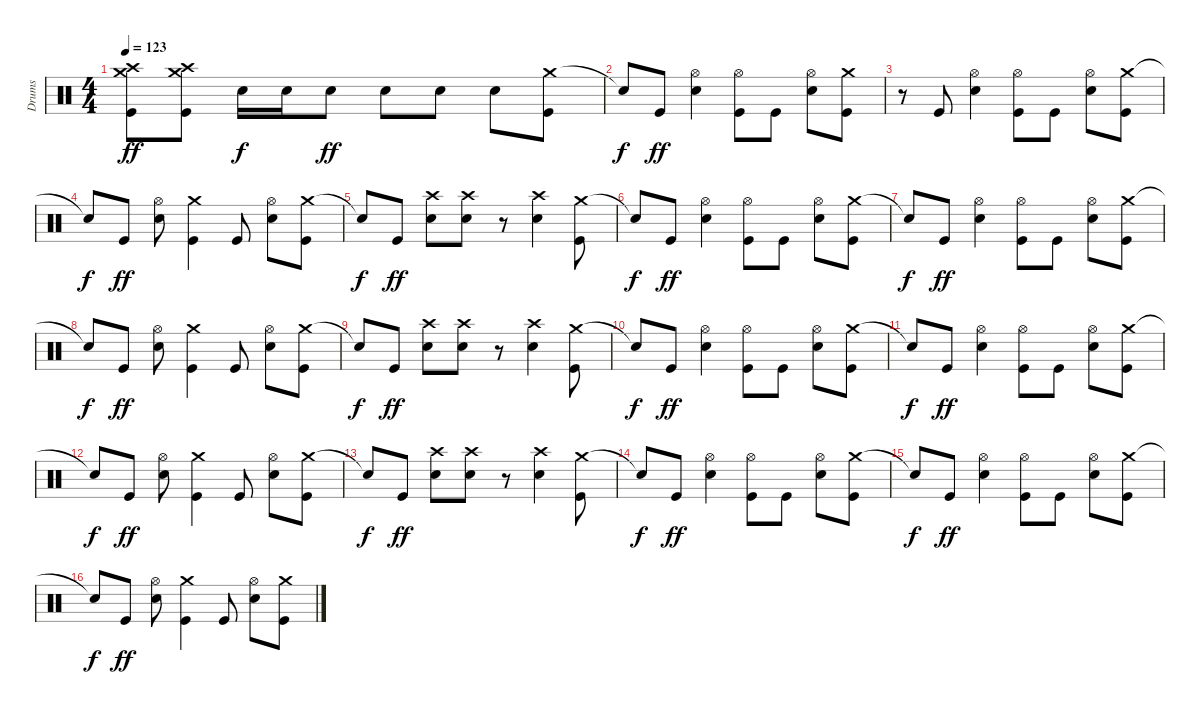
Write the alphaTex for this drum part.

\track ("Drums" "Drums") {instrument percussion}
\staff {score}
\articulation defaults
\ts (4 4)
\tempo 123
\clef neutral
\ks c
("Crash high (hit)" "Crash medium (hit)" "Kick (hit)").8{dy ff} ("Crash high (hit)" "Crash medium (hit)" "Kick (hit)").8 "Electric Snare (hit)".16{dy f} "Electric Snare (hit)".16 "Electric Snare (hit)".8{dy ff} "Electric Snare (hit)".8 "Electric Snare (hit)".8 "Electric Snare (hit)".8 ("Crash medium (hit)" "Kick (hit)").8 |
"Snare (hit)"{t}.8{dy f} "Kick (hit)".8{dy ff} ("Hi-Hat (open)" "Electric Snare (hit)").4 ("Hi-Hat (open)" "Kick (hit)").8 "Kick (hit)".8 ("Hi-Hat (open)" "Electric Snare (hit)").8 ("Crash medium (hit)" "Kick (hit)").8 |
r.8 "Kick (hit)".8 ("Hi-Hat (open)" "Electric Snare (hit)").4 ("Hi-Hat (open)" "Kick (hit)").8 "Kick (hit)".8 ("Hi-Hat (open)" "Electric Snare (hit)").8 ("Crash medium (hit)" "Kick (hit)").8 |
"Snare (hit)"{t}.8{dy f} "Kick (hit)".8{dy ff} ("Hi-Hat (open)" "Electric Snare (hit)").8 ("Crash medium (hit)" "Kick (hit)").4 "Kick (hit)".8 ("Hi-Hat (open)" "Electric Snare (hit)").8 ("Crash medium (hit)" "Kick (hit)").8 |
"Snare (hit)"{t}.8{dy f} "Kick (hit)".8{dy ff} ("Crash high (hit)" "Electric Snare (hit)").8 ("Crash high (hit)" "Electric Snare (hit)").8 r.8 ("Crash high (hit)" "Electric Snare (hit)").4 ("Crash medium (hit)" "Kick (hit)").8 |
"Snare (hit)"{t}.8{dy f} "Kick (hit)".8{dy ff} ("Hi-Hat (open)" "Electric Snare (hit)").4 ("Hi-Hat (open)" "Kick (hit)").8 "Kick (hit)".8 ("Hi-Hat (open)" "Electric Snare (hit)").8 ("Crash medium (hit)" "Kick (hit)").8 |
"Snare (hit)"{t}.8{dy f} "Kick (hit)".8{dy ff} ("Hi-Hat (open)" "Electric Snare (hit)").4 ("Hi-Hat (open)" "Kick (hit)").8 "Kick (hit)".8 ("Hi-Hat (open)" "Electric Snare (hit)").8 ("Crash medium (hit)" "Kick (hit)").8 |
"Snare (hit)"{t}.8{dy f} "Kick (hit)".8{dy ff} ("Hi-Hat (open)" "Electric Snare (hit)").8 ("Crash medium (hit)" "Kick (hit)").4 "Kick (hit)".8 ("Hi-Hat (open)" "Electric Snare (hit)").8 ("Crash medium (hit)" "Kick (hit)").8 |
"Snare (hit)"{t}.8{dy f} "Kick (hit)".8{dy ff} ("Crash high (hit)" "Electric Snare (hit)").8 ("Crash high (hit)" "Electric Snare (hit)").8 r.8 ("Crash high (hit)" "Electric Snare (hit)").4 ("Crash medium (hit)" "Kick (hit)").8 |
"Snare (hit)"{t}.8{dy f} "Kick (hit)".8{dy ff} ("Hi-Hat (open)" "Electric Snare (hit)").4 ("Hi-Hat (open)" "Kick (hit)").8 "Kick (hit)".8 ("Hi-Hat (open)" "Electric Snare (hit)").8 ("Crash medium (hit)" "Kick (hit)").8 |
"Snare (hit)"{t}.8{dy f} "Kick (hit)".8{dy ff} ("Hi-Hat (open)" "Electric Snare (hit)").4 ("Hi-Hat (open)" "Kick (hit)").8 "Kick (hit)".8 ("Hi-Hat (open)" "Electric Snare (hit)").8 ("Crash medium (hit)" "Kick (hit)").8 |
"Snare (hit)"{t}.8{dy f} "Kick (hit)".8{dy ff} ("Hi-Hat (open)" "Electric Snare (hit)").8 ("Crash medium (hit)" "Kick (hit)").4 "Kick (hit)".8 ("Hi-Hat (open)" "Electric Snare (hit)").8 ("Crash medium (hit)" "Kick (hit)").8 |
"Snare (hit)"{t}.8{dy f} "Kick (hit)".8{dy ff} ("Crash high (hit)" "Electric Snare (hit)").8 ("Crash high (hit)" "Electric Snare (hit)").8 r.8 ("Crash high (hit)" "Electric Snare (hit)").4 ("Crash medium (hit)" "Kick (hit)").8 |
"Snare (hit)"{t}.8{dy f} "Kick (hit)".8{dy ff} ("Hi-Hat (open)" "Electric Snare (hit)").4 ("Hi-Hat (open)" "Kick (hit)").8 "Kick (hit)".8 ("Hi-Hat (open)" "Electric Snare (hit)").8 ("Crash medium (hit)" "Kick (hit)").8 |
"Snare (hit)"{t}.8{dy f} "Kick (hit)".8{dy ff} ("Hi-Hat (open)" "Electric Snare (hit)").4 ("Hi-Hat (open)" "Kick (hit)").8 "Kick (hit)".8 ("Hi-Hat (open)" "Electric Snare (hit)").8 ("Crash medium (hit)" "Kick (hit)").8 |
"Snare (hit)"{t}.8{dy f} "Kick (hit)".8{dy ff} ("Hi-Hat (open)" "Electric Snare (hit)").8 ("Crash medium (hit)" "Kick (hit)").4 "Kick (hit)".8 ("Hi-Hat (open)" "Electric Snare (hit)").8 ("Crash medium (hit)" "Kick (hit)").8
